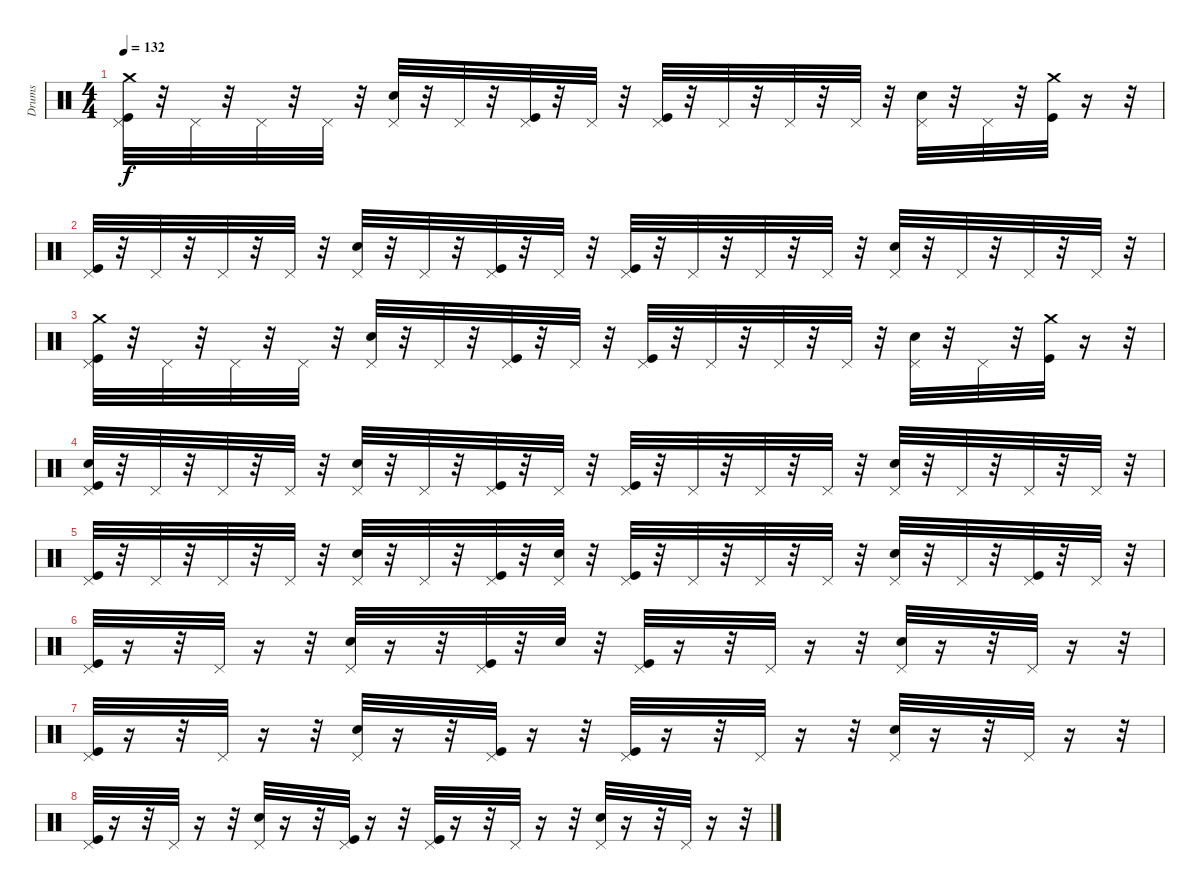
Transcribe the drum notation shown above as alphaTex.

\track ("Drums" "Drums") {instrument percussion}
\staff {score}
\articulation defaults
\ts (4 4)
\tempo 132
\clef neutral
\ks c
("Crash medium (hit)" "Kick (hit)" "Pedal Hi-Hat (hit)").32{dy f} r.32 "Pedal Hi-Hat (hit)".32 r.32 "Pedal Hi-Hat (hit)".32 r.32 "Pedal Hi-Hat (hit)".32 r.32 ("Pedal Hi-Hat (hit)" "Electric Snare (hit)").32 r.32 "Pedal Hi-Hat (hit)".32 r.32 ("Pedal Hi-Hat (hit)" "Kick (hit)").32 r.32 "Pedal Hi-Hat (hit)".32 r.32 ("Pedal Hi-Hat (hit)" "Kick (hit)").32 r.32 "Pedal Hi-Hat (hit)".32 r.32 "Pedal Hi-Hat (hit)".32 r.32 "Pedal Hi-Hat (hit)".32 r.32 ("Pedal Hi-Hat (hit)" "Electric Snare (hit)").32 r.32 "Pedal Hi-Hat (hit)".32 r.32 ("Kick (hit)" "Crash medium (hit)").32 r.16 r.32 |
("Kick (hit)" "Pedal Hi-Hat (hit)").32 r.32 "Pedal Hi-Hat (hit)".32 r.32 "Pedal Hi-Hat (hit)".32 r.32 "Pedal Hi-Hat (hit)".32 r.32 ("Electric Snare (hit)" "Pedal Hi-Hat (hit)").32 r.32 "Pedal Hi-Hat (hit)".32 r.32 ("Kick (hit)" "Pedal Hi-Hat (hit)").32 r.32 "Pedal Hi-Hat (hit)".32 r.32 ("Kick (hit)" "Pedal Hi-Hat (hit)").32 r.32 "Pedal Hi-Hat (hit)".32 r.32 "Pedal Hi-Hat (hit)".32 r.32 "Pedal Hi-Hat (hit)".32 r.32 ("Electric Snare (hit)" "Pedal Hi-Hat (hit)").32 r.32 "Pedal Hi-Hat (hit)".32 r.32 "Pedal Hi-Hat (hit)".32 r.32 "Pedal Hi-Hat (hit)".32 r.32 |
("Crash medium (hit)" "Kick (hit)" "Pedal Hi-Hat (hit)").32 r.32 "Pedal Hi-Hat (hit)".32 r.32 "Pedal Hi-Hat (hit)".32 r.32 "Pedal Hi-Hat (hit)".32 r.32 ("Pedal Hi-Hat (hit)" "Electric Snare (hit)").32 r.32 "Pedal Hi-Hat (hit)".32 r.32 ("Pedal Hi-Hat (hit)" "Kick (hit)").32 r.32 "Pedal Hi-Hat (hit)".32 r.32 ("Pedal Hi-Hat (hit)" "Kick (hit)").32 r.32 "Pedal Hi-Hat (hit)".32 r.32 "Pedal Hi-Hat (hit)".32 r.32 "Pedal Hi-Hat (hit)".32 r.32 ("Pedal Hi-Hat (hit)" "Electric Snare (hit)").32 r.32 "Pedal Hi-Hat (hit)".32 r.32 ("Kick (hit)" "Crash medium (hit)").32 r.16 r.32 |
("Electric Snare (hit)" "Kick (hit)" "Pedal Hi-Hat (hit)").32 r.32 "Pedal Hi-Hat (hit)".32 r.32 "Pedal Hi-Hat (hit)".32 r.32 "Pedal Hi-Hat (hit)".32 r.32 ("Pedal Hi-Hat (hit)" "Electric Snare (hit)").32 r.32 "Pedal Hi-Hat (hit)".32 r.32 ("Pedal Hi-Hat (hit)" "Kick (hit)").32 r.32 "Pedal Hi-Hat (hit)".32 r.32 ("Pedal Hi-Hat (hit)" "Kick (hit)").32 r.32 "Pedal Hi-Hat (hit)".32 r.32 "Pedal Hi-Hat (hit)".32 r.32 "Pedal Hi-Hat (hit)".32 r.32 ("Pedal Hi-Hat (hit)" "Electric Snare (hit)").32 r.32 "Pedal Hi-Hat (hit)".32 r.32 "Pedal Hi-Hat (hit)".32 r.32 "Pedal Hi-Hat (hit)".32 r.32 |
("Kick (hit)" "Pedal Hi-Hat (hit)").32 r.32 "Pedal Hi-Hat (hit)".32 r.32 "Pedal Hi-Hat (hit)".32 r.32 "Pedal Hi-Hat (hit)".32 r.32 ("Pedal Hi-Hat (hit)" "Electric Snare (hit)").32 r.32 "Pedal Hi-Hat (hit)".32 r.32 ("Pedal Hi-Hat (hit)" "Kick (hit)").32 r.32 ("Electric Snare (hit)" "Pedal Hi-Hat (hit)").32 r.32 ("Pedal Hi-Hat (hit)" "Kick (hit)").32 r.32 "Pedal Hi-Hat (hit)".32 r.32 "Pedal Hi-Hat (hit)".32 r.32 "Pedal Hi-Hat (hit)".32 r.32 ("Pedal Hi-Hat (hit)" "Electric Snare (hit)").32 r.32 "Pedal Hi-Hat (hit)".32 r.32 ("Pedal Hi-Hat (hit)" "Kick (hit)").32 r.32 "Pedal Hi-Hat (hit)".32 r.32 |
("Pedal Hi-Hat (hit)" "Kick (hit)").32 r.16 r.32 "Pedal Hi-Hat (hit)".32 r.16 r.32 ("Pedal Hi-Hat (hit)" "Electric Snare (hit)").32 r.16 r.32 ("Pedal Hi-Hat (hit)" "Kick (hit)").32 r.32 "Electric Snare (hit)".32 r.32 ("Pedal Hi-Hat (hit)" "Kick (hit)").32 r.16 r.32 "Pedal Hi-Hat (hit)".32 r.16 r.32 ("Pedal Hi-Hat (hit)" "Electric Snare (hit)").32 r.16 r.32 "Pedal Hi-Hat (hit)".32 r.16 r.32 |
("Pedal Hi-Hat (hit)" "Kick (hit)").32 r.16 r.32 "Pedal Hi-Hat (hit)".32 r.16 r.32 ("Pedal Hi-Hat (hit)" "Electric Snare (hit)").32 r.16 r.32 ("Pedal Hi-Hat (hit)" "Kick (hit)").32 r.16 r.32 ("Pedal Hi-Hat (hit)" "Kick (hit)").32 r.16 r.32 "Pedal Hi-Hat (hit)".32 r.16 r.32 ("Pedal Hi-Hat (hit)" "Electric Snare (hit)").32 r.16 r.32 "Pedal Hi-Hat (hit)".32 r.16 r.32 |
("Pedal Hi-Hat (hit)" "Kick (hit)").32 r.16 r.32 "Pedal Hi-Hat (hit)".32 r.16 r.32 ("Pedal Hi-Hat (hit)" "Electric Snare (hit)").32 r.16 r.32 ("Pedal Hi-Hat (hit)" "Kick (hit)").32 r.16 r.32 ("Pedal Hi-Hat (hit)" "Kick (hit)").32 r.16 r.32 "Pedal Hi-Hat (hit)".32 r.16 r.32 ("Pedal Hi-Hat (hit)" "Electric Snare (hit)").32 r.16 r.32 "Pedal Hi-Hat (hit)".32 r.16 r.32
